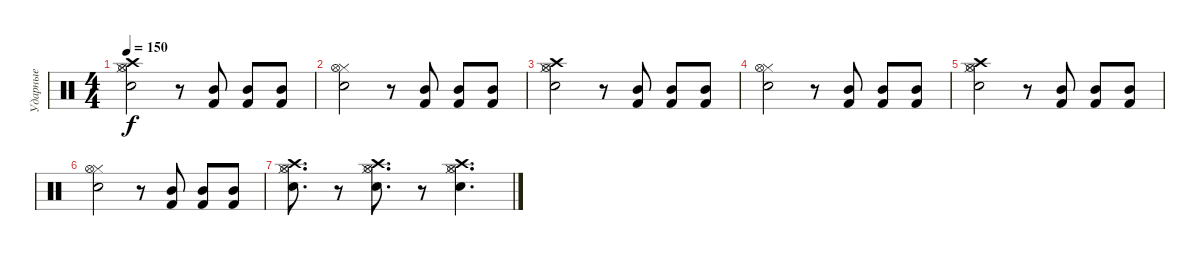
\track ("Ударные" "Ударные") {instrument percussion}
\staff {score}
\articulation defaults
\ts (4 4)
\tempo 150
\clef neutral
\ks c
("Snare (hit) 2" "Hi-Hat (closed)" "Hi-Hat (open)" "Crash high (hit)").2{dy f} r.8 ("Mid Tom (hit)" "Kick (hit) 2").8 ("Mid Tom (hit)" "Kick (hit) 2").8 ("Mid Tom (hit)" "Kick (hit) 2").8 |
("Snare (hit) 2" "Hi-Hat (closed)" "Hi-Hat (open)").2 r.8 ("Mid Tom (hit)" "Kick (hit) 2").8 ("Mid Tom (hit)" "Kick (hit) 2").8 ("Mid Tom (hit)" "Kick (hit) 2").8 |
("Snare (hit) 2" "Hi-Hat (closed)" "Hi-Hat (open)" "Crash high (hit)").2 r.8 ("Mid Tom (hit)" "Kick (hit) 2").8 ("Mid Tom (hit)" "Kick (hit) 2").8 ("Mid Tom (hit)" "Kick (hit) 2").8 |
("Snare (hit) 2" "Hi-Hat (closed)" "Hi-Hat (open)").2 r.8 ("Mid Tom (hit)" "Kick (hit) 2").8 ("Mid Tom (hit)" "Kick (hit) 2").8 ("Mid Tom (hit)" "Kick (hit) 2").8 |
("Snare (hit) 2" "Hi-Hat (closed)" "Hi-Hat (open)" "Crash high (hit)").2 r.8 ("Mid Tom (hit)" "Kick (hit) 2").8 ("Mid Tom (hit)" "Kick (hit) 2").8 ("Mid Tom (hit)" "Kick (hit) 2").8 |
("Snare (hit) 2" "Hi-Hat (closed)" "Hi-Hat (open)").2 r.8 ("Mid Tom (hit)" "Kick (hit) 2").8 ("Mid Tom (hit)" "Kick (hit) 2").8 ("Mid Tom (hit)" "Kick (hit) 2").8 |
("Snare (hit) 2" "Hi-Hat (closed)" "Hi-Hat (open)" "Crash high (hit)").8{d} r.8 ("Snare (hit) 2" "Hi-Hat (closed)" "Hi-Hat (open)" "Crash high (hit)").8{d} r.8 ("Snare (hit) 2" "Hi-Hat (closed)" "Hi-Hat (open)" "Crash high (hit)").4{d}
